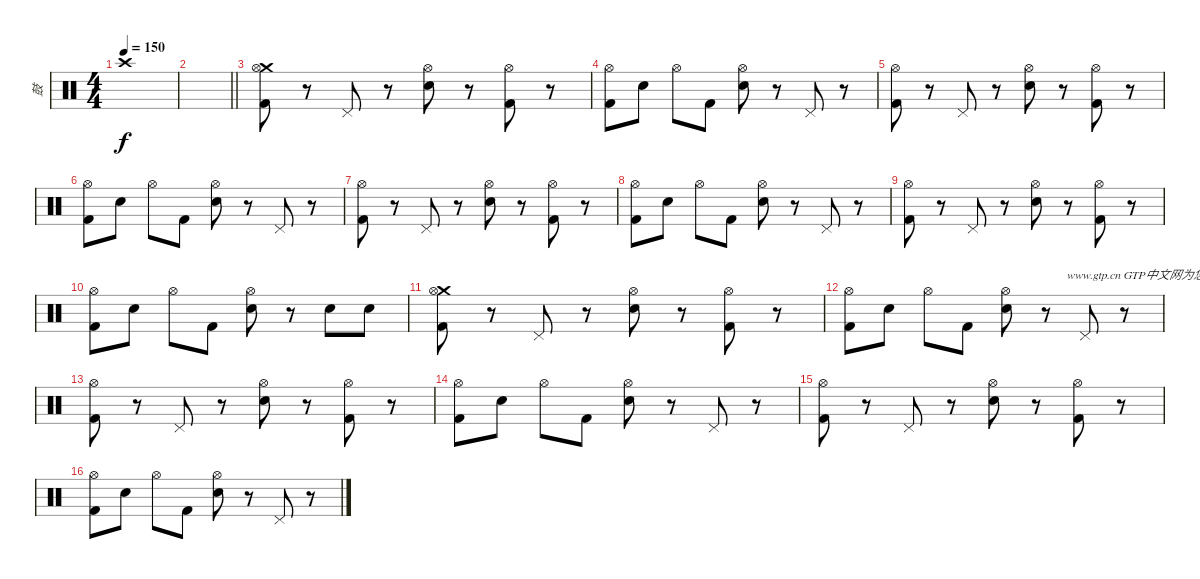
\track ("鼓" "鼓") {instrument percussion}
\staff {score}
\articulation defaults
\ts (4 4)
\tempo 150
\clef neutral
\ks c "Crash high (hit)".1{dy f}
|
\barLineRight lightlight
|
("Crash medium (hit)" "Hi-Hat (open)" "Kick (hit) 2").8 r.8 "Pedal Hi-Hat (hit)".8 r.8 ("Hi-Hat (open)" "Electric Snare (hit)").8 r.8 ("Hi-Hat (open)" "Kick (hit) 2").8 r.8 |
("Hi-Hat (open)" "Kick (hit) 2").8 "Electric Snare (hit)".8 "Hi-Hat (open)".8 "Kick (hit) 2".8 ("Hi-Hat (open)" "Electric Snare (hit)").8 r.8 "Pedal Hi-Hat (hit)".8 r.8 |
("Hi-Hat (open)" "Kick (hit) 2").8 r.8 "Pedal Hi-Hat (hit)".8 r.8 ("Hi-Hat (open)" "Electric Snare (hit)").8 r.8 ("Hi-Hat (open)" "Kick (hit) 2").8 r.8 |
("Hi-Hat (open)" "Kick (hit) 2").8 "Electric Snare (hit)".8 "Hi-Hat (open)".8 "Kick (hit) 2".8 ("Hi-Hat (open)" "Electric Snare (hit)").8 r.8 "Pedal Hi-Hat (hit)".8 r.8 |
("Hi-Hat (open)" "Kick (hit) 2").8 r.8 "Pedal Hi-Hat (hit)".8 r.8 ("Hi-Hat (open)" "Electric Snare (hit)").8 r.8 ("Hi-Hat (open)" "Kick (hit) 2").8 r.8 |
("Hi-Hat (open)" "Kick (hit) 2").8 "Electric Snare (hit)".8 "Hi-Hat (open)".8 "Kick (hit) 2".8 ("Hi-Hat (open)" "Electric Snare (hit)").8 r.8 "Pedal Hi-Hat (hit)".8 r.8 |
("Hi-Hat (open)" "Kick (hit) 2").8 r.8 "Pedal Hi-Hat (hit)".8 r.8 ("Hi-Hat (open)" "Electric Snare (hit)").8 r.8 ("Hi-Hat (open)" "Kick (hit) 2").8 r.8 |
("Hi-Hat (open)" "Kick (hit) 2").8 "Electric Snare (hit)".8 "Hi-Hat (open)".8 "Kick (hit) 2".8 ("Hi-Hat (open)" "Electric Snare (hit)").8 r.8 "Electric Snare (hit)".8 "Electric Snare (hit)".8 |
("Crash medium (hit)" "Hi-Hat (open)" "Kick (hit) 2").8 r.8 "Pedal Hi-Hat (hit)".8 r.8 ("Hi-Hat (open)" "Electric Snare (hit)").8 r.8 ("Hi-Hat (open)" "Kick (hit) 2").8 r.8 |
("Hi-Hat (open)" "Kick (hit) 2").8 "Electric Snare (hit)".8 "Hi-Hat (open)".8 "Kick (hit) 2".8 ("Hi-Hat (open)" "Electric Snare (hit)").8{txt "                    www.gtp.cn GTP中文网为您提供"} r.8 "Pedal Hi-Hat (hit)".8 r.8 |
("Hi-Hat (open)" "Kick (hit) 2").8 r.8 "Pedal Hi-Hat (hit)".8 r.8 ("Hi-Hat (open)" "Electric Snare (hit)").8 r.8 ("Hi-Hat (open)" "Kick (hit) 2").8 r.8 |
("Hi-Hat (open)" "Kick (hit) 2").8 "Electric Snare (hit)".8 "Hi-Hat (open)".8 "Kick (hit) 2".8 ("Hi-Hat (open)" "Electric Snare (hit)").8 r.8 "Pedal Hi-Hat (hit)".8 r.8 |
("Hi-Hat (open)" "Kick (hit) 2").8 r.8 "Pedal Hi-Hat (hit)".8 r.8 ("Hi-Hat (open)" "Electric Snare (hit)").8 r.8 ("Hi-Hat (open)" "Kick (hit) 2").8 r.8 |
("Hi-Hat (open)" "Kick (hit) 2").8 "Electric Snare (hit)".8 "Hi-Hat (open)".8 "Kick (hit) 2".8 ("Hi-Hat (open)" "Electric Snare (hit)").8 r.8 "Pedal Hi-Hat (hit)".8 r.8
